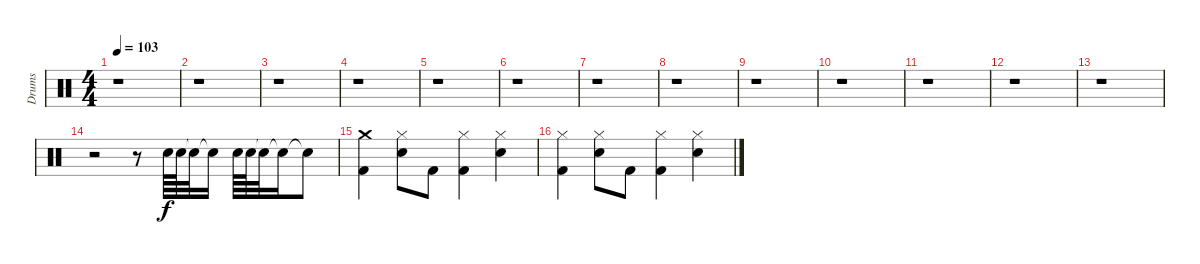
\track ("Drums" "Drums") {instrument percussion}
\staff {score}
\articulation defaults
\ts (4 4)
\tempo 103
\clef neutral
\ks c
r.1{dy f} |
r.1 |
r.1 |
r.1 |
r.1 |
r.1 |
r.1 |
r.1 |
r.1 |
r.1 |
r.1 |
r.1 |
r.1 |
r.2 r.8 "Electric Snare (hit)".64 "Electric Snare (hit)".64 "Snare (hit)"{t}.32 "Snare (hit)"{t}.16 "Electric Snare (hit)".64 "Electric Snare (hit)".64 "Snare (hit)"{t}.32 "Snare (hit)"{t}.16 "Snare (hit)"{t}.8 |
("Crash medium (hit)" "Kick (hit) 2").4 ("Hi-Hat (closed)" "Electric Snare (hit)").8 "Kick (hit) 2".8 ("Hi-Hat (closed)" "Kick (hit) 2").4 ("Hi-Hat (closed)" "Electric Snare (hit)").4 |
("Hi-Hat (closed)" "Kick (hit) 2").4 ("Hi-Hat (closed)" "Electric Snare (hit)").8 "Kick (hit) 2".8 ("Hi-Hat (closed)" "Kick (hit) 2").4 ("Hi-Hat (closed)" "Electric Snare (hit)").4
